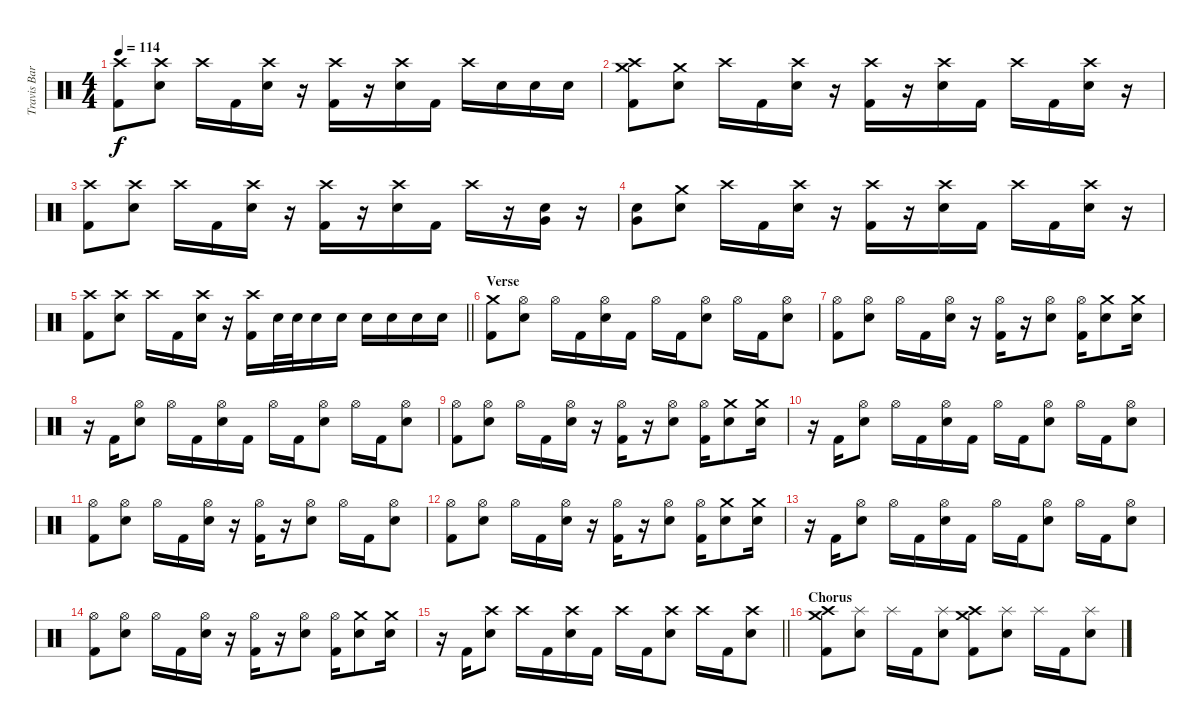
\track ("Travis Barker" "Travis Bar") {instrument percussion}
\staff {score}
\articulation defaults
\ts (4 4)
\tempo 114
\clef neutral
\ks c
("Crash high (hit)" "Kick (hit) 2").8{dy f} ("Crash high (hit)" "Electric Snare (hit)").8 "Crash high (hit)".16 "Kick (hit) 2".16 ("Crash high (hit)" "Electric Snare (hit)").16 r.16 ("Crash high (hit)" "Kick (hit) 2").16 r.16 ("Crash high (hit)" "Electric Snare (hit)").16 "Kick (hit) 2".16 "Crash high (hit)".16 "Electric Snare (hit)".16 "Electric Snare (hit)".16 "Electric Snare (hit)".16 |
("Crash medium (hit)" "Crash high (hit)" "Kick (hit) 2").8 ("Crash medium (hit)" "Electric Snare (hit)").8 "Crash high (hit)".16 "Kick (hit) 2".16 ("Crash high (hit)" "Electric Snare (hit)").16 r.16 ("Crash high (hit)" "Kick (hit) 2").16 r.16 ("Crash high (hit)" "Electric Snare (hit)").16 "Kick (hit) 2".16 "Crash high (hit)".16 "Kick (hit) 2".16 ("Crash high (hit)" "Electric Snare (hit)").16 r.16 |
("Crash high (hit)" "Kick (hit) 2").8 ("Crash high (hit)" "Electric Snare (hit)").8 "Crash high (hit)".16 "Kick (hit) 2".16 ("Crash high (hit)" "Electric Snare (hit)").16 r.16 ("Crash high (hit)" "Kick (hit) 2").16 r.16 ("Crash high (hit)" "Electric Snare (hit)").16 "Kick (hit) 2".16 "Crash high (hit)".16 r.16 ("Electric Snare (hit)" "Very Low Tom (hit)").16 r.16 |
("Electric Snare (hit)" "Very Low Tom (hit)").8 ("Crash medium (hit)" "Electric Snare (hit)").8 "Crash high (hit)".16 "Kick (hit) 2".16 ("Crash high (hit)" "Electric Snare (hit)").16 r.16 ("Crash high (hit)" "Kick (hit) 2").16 r.16 ("Crash high (hit)" "Electric Snare (hit)").16 "Kick (hit) 2".16 "Crash high (hit)".16 "Kick (hit) 2".16 ("Crash high (hit)" "Electric Snare (hit)").16 r.16 |
\barLineRight lightlight
("Crash high (hit)" "Kick (hit) 2").8 ("Crash high (hit)" "Electric Snare (hit)").8 "Crash high (hit)".16 "Kick (hit) 2".16 ("Crash high (hit)" "Electric Snare (hit)").16 r.16 ("Crash high (hit)" "Kick (hit) 2").16 "Electric Snare (hit)".32 "Electric Snare (hit)".32 "Electric Snare (hit)".16 "Electric Snare (hit)".16 "Electric Snare (hit)".16 "Electric Snare (hit)".16 "Electric Snare (hit)".16 "Electric Snare (hit)".16 |
\section ("" "Verse")
("Crash medium (hit)" "Kick (hit) 2").8 ("Hi-Hat (open)" "Electric Snare (hit)").8 "Hi-Hat (open)".16 "Kick (hit) 2".16 ("Hi-Hat (open)" "Electric Snare (hit)").16 "Kick (hit) 2".16 "Hi-Hat (open)".16 "Kick (hit) 2".16 ("Hi-Hat (open)" "Electric Snare (hit)").8 "Hi-Hat (open)".16 "Kick (hit) 2".16 ("Hi-Hat (open)" "Electric Snare (hit)").8 |
("Hi-Hat (open)" "Kick (hit) 2").8 ("Hi-Hat (open)" "Electric Snare (hit)").8 "Hi-Hat (open)".16 "Kick (hit) 2".16 ("Hi-Hat (open)" "Electric Snare (hit)").16 r.16 ("Hi-Hat (open)" "Kick (hit) 2").16 r.16 ("Hi-Hat (open)" "Electric Snare (hit)").8 ("Hi-Hat (open)" "Kick (hit) 2").16 ("Crash medium (hit)" "Electric Snare (hit)").8 ("Crash medium (hit)" "Electric Snare (hit)").16 |
r.16 "Kick (hit) 2".16 ("Hi-Hat (open)" "Electric Snare (hit)").8 "Hi-Hat (open)".16 "Kick (hit) 2".16 ("Hi-Hat (open)" "Electric Snare (hit)").16 "Kick (hit) 2".16 "Hi-Hat (open)".16 "Kick (hit) 2".16 ("Hi-Hat (open)" "Electric Snare (hit)").8 "Hi-Hat (open)".16 "Kick (hit) 2".16 ("Hi-Hat (open)" "Electric Snare (hit)").8 |
("Hi-Hat (open)" "Kick (hit) 2").8 ("Hi-Hat (open)" "Electric Snare (hit)").8 "Hi-Hat (open)".16 "Kick (hit) 2".16 ("Hi-Hat (open)" "Electric Snare (hit)").16 r.16 ("Hi-Hat (open)" "Kick (hit) 2").16 r.16 ("Hi-Hat (open)" "Electric Snare (hit)").8 ("Hi-Hat (open)" "Kick (hit) 2").16 ("Crash medium (hit)" "Electric Snare (hit)").8 ("Crash medium (hit)" "Electric Snare (hit)").16 |
r.16 "Kick (hit) 2".16 ("Hi-Hat (open)" "Electric Snare (hit)").8 "Hi-Hat (open)".16 "Kick (hit) 2".16 ("Hi-Hat (open)" "Electric Snare (hit)").16 "Kick (hit) 2".16 "Hi-Hat (open)".16 "Kick (hit) 2".16 ("Hi-Hat (open)" "Electric Snare (hit)").8 "Hi-Hat (open)".16 "Kick (hit) 2".16 ("Hi-Hat (open)" "Electric Snare (hit)").8 |
("Hi-Hat (open)" "Kick (hit) 2").8 ("Hi-Hat (open)" "Electric Snare (hit)").8 "Hi-Hat (open)".16 "Kick (hit) 2".16 ("Hi-Hat (open)" "Electric Snare (hit)").16 r.16 ("Hi-Hat (open)" "Kick (hit) 2").16 r.16 ("Hi-Hat (open)" "Electric Snare (hit)").8 "Hi-Hat (open)".16 "Kick (hit) 2".16 ("Hi-Hat (open)" "Electric Snare (hit)").8 |
("Hi-Hat (open)" "Kick (hit) 2").8 ("Hi-Hat (open)" "Electric Snare (hit)").8 "Hi-Hat (open)".16 "Kick (hit) 2".16 ("Hi-Hat (open)" "Electric Snare (hit)").16 r.16 ("Hi-Hat (open)" "Kick (hit) 2").16 r.16 ("Hi-Hat (open)" "Electric Snare (hit)").8 ("Hi-Hat (open)" "Kick (hit) 2").16 ("Crash medium (hit)" "Electric Snare (hit)").8 ("Crash medium (hit)" "Electric Snare (hit)").16 |
r.16 "Kick (hit) 2".16 ("Hi-Hat (open)" "Electric Snare (hit)").8 "Hi-Hat (open)".16 "Kick (hit) 2".16 ("Hi-Hat (open)" "Electric Snare (hit)").16 "Kick (hit) 2".16 "Hi-Hat (open)".16 "Kick (hit) 2".16 ("Hi-Hat (open)" "Electric Snare (hit)").8 "Hi-Hat (open)".16 "Kick (hit) 2".16 ("Hi-Hat (open)" "Electric Snare (hit)").8 |
("Hi-Hat (open)" "Kick (hit) 2").8 ("Hi-Hat (open)" "Electric Snare (hit)").8 "Hi-Hat (open)".16 "Kick (hit) 2".16 ("Hi-Hat (open)" "Electric Snare (hit)").16 r.16 ("Hi-Hat (open)" "Kick (hit) 2").16 r.16 ("Hi-Hat (open)" "Electric Snare (hit)").8 ("Hi-Hat (open)" "Kick (hit) 2").16 ("Crash medium (hit)" "Electric Snare (hit)").8 ("Crash medium (hit)" "Electric Snare (hit)").16 |
\barLineRight lightlight
r.16 "Kick (hit) 2".16 ("Crash high (hit)" "Electric Snare (hit)").8 "Crash high (hit)".16 "Kick (hit) 2".16 ("Crash high (hit)" "Electric Snare (hit)").16 "Kick (hit) 2".16 "Crash high (hit)".16 "Kick (hit) 2".16 ("Crash high (hit)" "Electric Snare (hit)").8 "Crash high (hit)".16 "Kick (hit) 2".16 ("Crash high (hit)" "Electric Snare (hit)").8 |
\section ("" "Chorus")
("Crash medium (hit)" "Crash high (hit)" "Kick (hit) 2").8 ("Splash (hit)" "Electric Snare (hit)").8 "Splash (hit)".16 "Kick (hit) 2".16 ("Splash (hit)" "Electric Snare (hit)").8 ("Crash medium (hit)" "Crash high (hit)" "Kick (hit) 2").8 ("Splash (hit)" "Electric Snare (hit)").8 "Splash (hit)".16 "Kick (hit) 2".16 ("Splash (hit)" "Electric Snare (hit)").8
